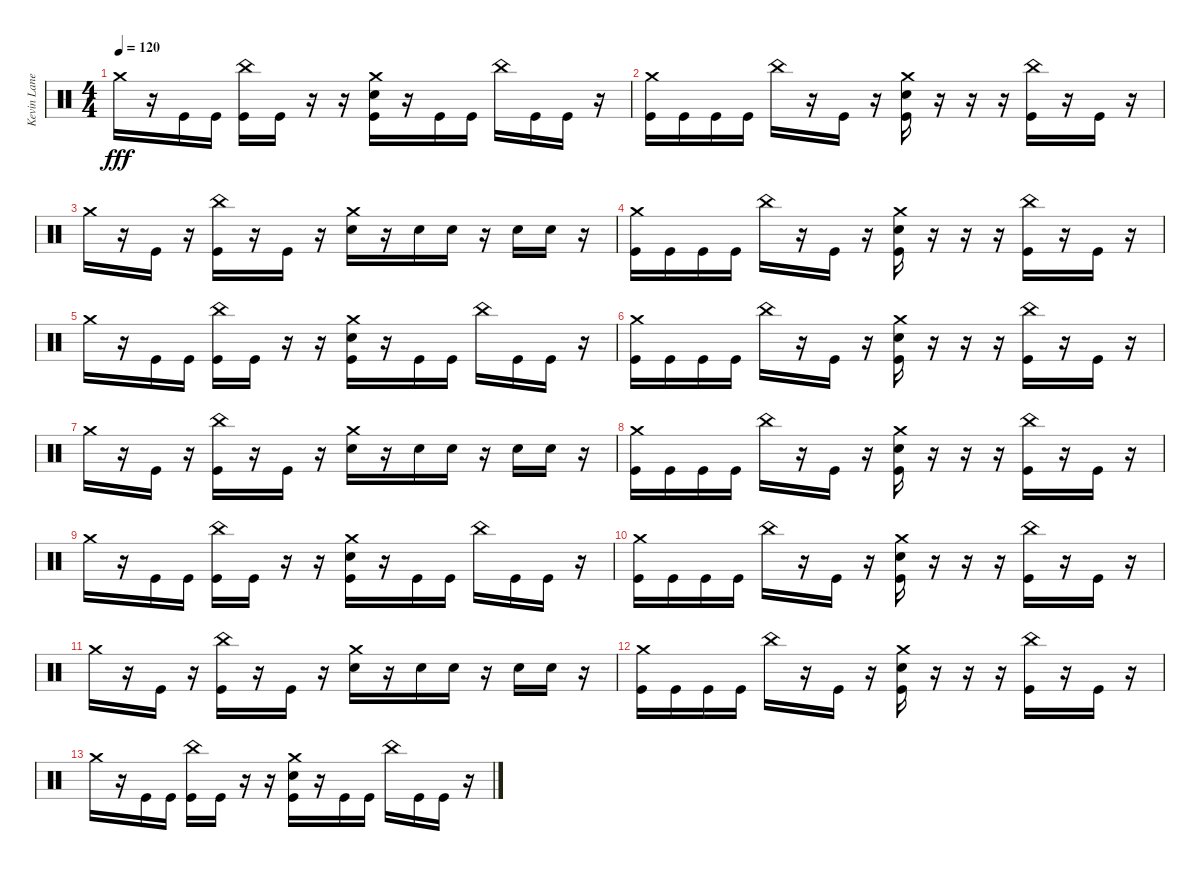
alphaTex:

\track ("Kevin Lane" "Kevin Lane") {instrument percussion}
\staff {score}
\articulation defaults
\ts (4 4)
\tempo 120
\clef neutral
\ks c "Crash medium (hit)".16{dy fff}
r.16 "Kick (hit)".16 "Kick (hit)".16 ("China (hit)" "Kick (hit)").16 "Kick (hit)".16 r.16 r.16 ("Crash medium (hit)" "Snare (hit) 2" "Kick (hit)").16 r.16 "Kick (hit)".16 "Kick (hit)".16 "China (hit)".16 "Kick (hit)".16 "Kick (hit)".16 r.16 |
("Crash medium (hit)" "Kick (hit)").16 "Kick (hit)".16 "Kick (hit)".16 "Kick (hit)".16 "China (hit)".16 r.16 "Kick (hit)".16 r.16 ("Crash medium (hit)" "Snare (hit) 2" "Kick (hit)").16 r.16 r.16 r.16 ("China (hit)" "Kick (hit)").16 r.16 "Kick (hit)".16 r.16 |
"Crash medium (hit)".16 r.16 "Kick (hit)".16 r.16 ("China (hit)" "Kick (hit)").16 r.16 "Kick (hit)".16 r.16 ("Crash medium (hit)" "Snare (hit) 2").16 r.16 "Snare (hit) 2".16 "Snare (hit) 2".16 r.16 "Snare (hit) 2".16 "Snare (hit) 2".16 r.16 |
("Crash medium (hit)" "Kick (hit)").16 "Kick (hit)".16 "Kick (hit)".16 "Kick (hit)".16 "China (hit)".16 r.16 "Kick (hit)".16 r.16 ("Crash medium (hit)" "Snare (hit) 2" "Kick (hit)").16 r.16 r.16 r.16 ("China (hit)" "Kick (hit)").16 r.16 "Kick (hit)".16 r.16 |
"Crash medium (hit)".16 r.16 "Kick (hit)".16 "Kick (hit)".16 ("China (hit)" "Kick (hit)").16 "Kick (hit)".16 r.16 r.16 ("Crash medium (hit)" "Snare (hit) 2" "Kick (hit)").16 r.16 "Kick (hit)".16 "Kick (hit)".16 "China (hit)".16 "Kick (hit)".16 "Kick (hit)".16 r.16 |
("Crash medium (hit)" "Kick (hit)").16{volume 8} "Kick (hit)".16 "Kick (hit)".16 "Kick (hit)".16 "China (hit)".16 r.16 "Kick (hit)".16 r.16 ("Crash medium (hit)" "Snare (hit) 2" "Kick (hit)").16 r.16 r.16 r.16 ("China (hit)" "Kick (hit)").16 r.16 "Kick (hit)".16 r.16 |
"Crash medium (hit)".16 r.16 "Kick (hit)".16 r.16 ("China (hit)" "Kick (hit)").16 r.16 "Kick (hit)".16 r.16 ("Crash medium (hit)" "Snare (hit) 2").16 r.16 "Snare (hit) 2".16 "Snare (hit) 2".16 r.16 "Snare (hit) 2".16 "Snare (hit) 2".16 r.16 |
("Crash medium (hit)" "Kick (hit)").16 "Kick (hit)".16 "Kick (hit)".16 "Kick (hit)".16 "China (hit)".16 r.16 "Kick (hit)".16 r.16 ("Crash medium (hit)" "Snare (hit) 2" "Kick (hit)").16 r.16 r.16 r.16 ("China (hit)" "Kick (hit)").16 r.16 "Kick (hit)".16 r.16 |
"Crash medium (hit)".16 r.16 "Kick (hit)".16 "Kick (hit)".16 ("China (hit)" "Kick (hit)").16 "Kick (hit)".16 r.16 r.16 ("Crash medium (hit)" "Snare (hit) 2" "Kick (hit)").16 r.16 "Kick (hit)".16 "Kick (hit)".16 "China (hit)".16 "Kick (hit)".16 "Kick (hit)".16 r.16 |
("Crash medium (hit)" "Kick (hit)").16{volume 0} "Kick (hit)".16 "Kick (hit)".16 "Kick (hit)".16 "China (hit)".16 r.16 "Kick (hit)".16 r.16 ("Crash medium (hit)" "Snare (hit) 2" "Kick (hit)").16 r.16 r.16 r.16 ("China (hit)" "Kick (hit)").16 r.16 "Kick (hit)".16 r.16 |
"Crash medium (hit)".16 r.16 "Kick (hit)".16 r.16 ("China (hit)" "Kick (hit)").16 r.16 "Kick (hit)".16 r.16 ("Crash medium (hit)" "Snare (hit) 2").16 r.16 "Snare (hit) 2".16 "Snare (hit) 2".16 r.16 "Snare (hit) 2".16 "Snare (hit) 2".16 r.16 |
("Crash medium (hit)" "Kick (hit)").16 "Kick (hit)".16 "Kick (hit)".16 "Kick (hit)".16 "China (hit)".16 r.16 "Kick (hit)".16 r.16 ("Crash medium (hit)" "Snare (hit) 2" "Kick (hit)").16 r.16 r.16 r.16 ("China (hit)" "Kick (hit)").16 r.16 "Kick (hit)".16 r.16 |
"Crash medium (hit)".16 r.16 "Kick (hit)".16 "Kick (hit)".16 ("China (hit)" "Kick (hit)").16 "Kick (hit)".16 r.16 r.16 ("Crash medium (hit)" "Snare (hit) 2" "Kick (hit)").16 r.16 "Kick (hit)".16 "Kick (hit)".16 "China (hit)".16 "Kick (hit)".16 "Kick (hit)".16 r.16
